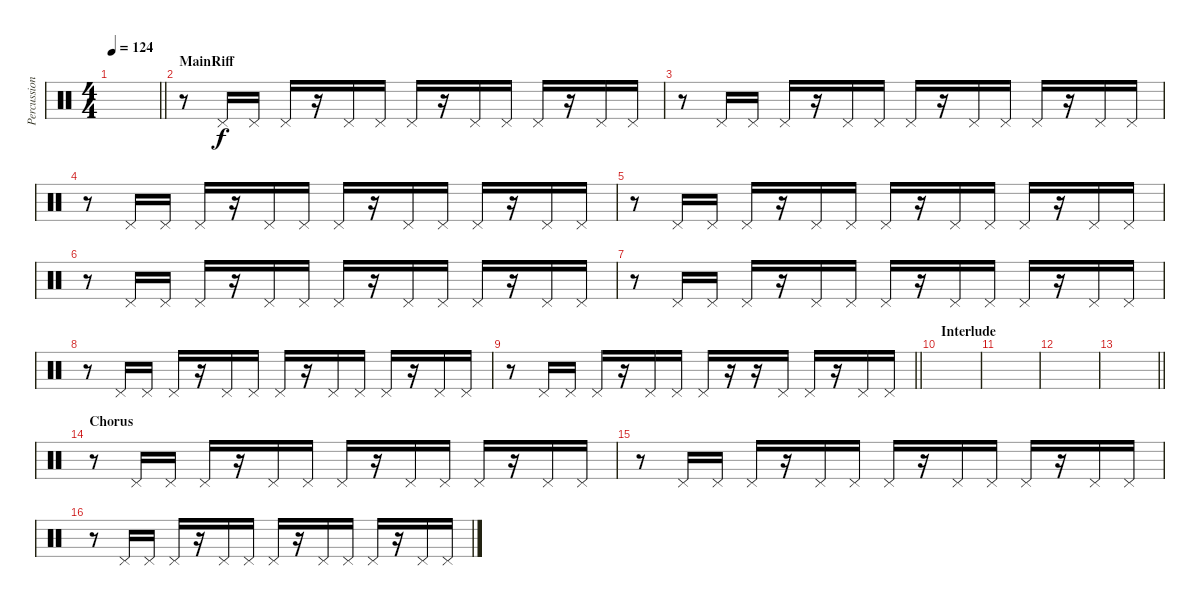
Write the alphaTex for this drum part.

\track ("Percussion" "Percussion") {instrument percussion}
\staff {score}
\articulation defaults
\ts (4 4)
\tempo 124
\clef neutral
\barLineRight lightlight
\ks c
|
\section ("" "MainRiff")
r.8 "Pedal Hi-Hat (hit)".16 "Pedal Hi-Hat (hit)".16 "Pedal Hi-Hat (hit)".16 r.16 "Pedal Hi-Hat (hit)".16 "Pedal Hi-Hat (hit)".16 "Pedal Hi-Hat (hit)".16 r.16 "Pedal Hi-Hat (hit)".16 "Pedal Hi-Hat (hit)".16 "Pedal Hi-Hat (hit)".16 r.16 "Pedal Hi-Hat (hit)".16 "Pedal Hi-Hat (hit)".16 |
r.8 "Pedal Hi-Hat (hit)".16 "Pedal Hi-Hat (hit)".16 "Pedal Hi-Hat (hit)".16 r.16 "Pedal Hi-Hat (hit)".16 "Pedal Hi-Hat (hit)".16 "Pedal Hi-Hat (hit)".16 r.16 "Pedal Hi-Hat (hit)".16 "Pedal Hi-Hat (hit)".16 "Pedal Hi-Hat (hit)".16 r.16 "Pedal Hi-Hat (hit)".16 "Pedal Hi-Hat (hit)".16 |
r.8 "Pedal Hi-Hat (hit)".16 "Pedal Hi-Hat (hit)".16 "Pedal Hi-Hat (hit)".16 r.16 "Pedal Hi-Hat (hit)".16 "Pedal Hi-Hat (hit)".16 "Pedal Hi-Hat (hit)".16 r.16 "Pedal Hi-Hat (hit)".16 "Pedal Hi-Hat (hit)".16 "Pedal Hi-Hat (hit)".16 r.16 "Pedal Hi-Hat (hit)".16 "Pedal Hi-Hat (hit)".16 |
r.8 "Pedal Hi-Hat (hit)".16 "Pedal Hi-Hat (hit)".16 "Pedal Hi-Hat (hit)".16 r.16 "Pedal Hi-Hat (hit)".16 "Pedal Hi-Hat (hit)".16 "Pedal Hi-Hat (hit)".16 r.16 "Pedal Hi-Hat (hit)".16 "Pedal Hi-Hat (hit)".16 "Pedal Hi-Hat (hit)".16 r.16 "Pedal Hi-Hat (hit)".16 "Pedal Hi-Hat (hit)".16 |
r.8 "Pedal Hi-Hat (hit)".16 "Pedal Hi-Hat (hit)".16 "Pedal Hi-Hat (hit)".16 r.16 "Pedal Hi-Hat (hit)".16 "Pedal Hi-Hat (hit)".16 "Pedal Hi-Hat (hit)".16 r.16 "Pedal Hi-Hat (hit)".16 "Pedal Hi-Hat (hit)".16 "Pedal Hi-Hat (hit)".16 r.16 "Pedal Hi-Hat (hit)".16 "Pedal Hi-Hat (hit)".16 |
r.8 "Pedal Hi-Hat (hit)".16 "Pedal Hi-Hat (hit)".16 "Pedal Hi-Hat (hit)".16 r.16 "Pedal Hi-Hat (hit)".16 "Pedal Hi-Hat (hit)".16 "Pedal Hi-Hat (hit)".16 r.16 "Pedal Hi-Hat (hit)".16 "Pedal Hi-Hat (hit)".16 "Pedal Hi-Hat (hit)".16 r.16 "Pedal Hi-Hat (hit)".16 "Pedal Hi-Hat (hit)".16 |
r.8 "Pedal Hi-Hat (hit)".16 "Pedal Hi-Hat (hit)".16 "Pedal Hi-Hat (hit)".16 r.16 "Pedal Hi-Hat (hit)".16 "Pedal Hi-Hat (hit)".16 "Pedal Hi-Hat (hit)".16 r.16 "Pedal Hi-Hat (hit)".16 "Pedal Hi-Hat (hit)".16 "Pedal Hi-Hat (hit)".16 r.16 "Pedal Hi-Hat (hit)".16 "Pedal Hi-Hat (hit)".16 |
\barLineRight lightlight
r.8 "Pedal Hi-Hat (hit)".16 "Pedal Hi-Hat (hit)".16 "Pedal Hi-Hat (hit)".16 r.16 "Pedal Hi-Hat (hit)".16 "Pedal Hi-Hat (hit)".16 "Pedal Hi-Hat (hit)".16 r.16 r.16 "Pedal Hi-Hat (hit)".16 "Pedal Hi-Hat (hit)".16 r.16 "Pedal Hi-Hat (hit)".16 "Pedal Hi-Hat (hit)".16 |
\section ("" "Interlude")
|
|
|
\barLineRight lightlight
|
\section ("" "Chorus")
r.8 "Pedal Hi-Hat (hit)".16 "Pedal Hi-Hat (hit)".16 "Pedal Hi-Hat (hit)".16 r.16 "Pedal Hi-Hat (hit)".16 "Pedal Hi-Hat (hit)".16 "Pedal Hi-Hat (hit)".16 r.16 "Pedal Hi-Hat (hit)".16 "Pedal Hi-Hat (hit)".16 "Pedal Hi-Hat (hit)".16 r.16 "Pedal Hi-Hat (hit)".16 "Pedal Hi-Hat (hit)".16 |
r.8 "Pedal Hi-Hat (hit)".16 "Pedal Hi-Hat (hit)".16 "Pedal Hi-Hat (hit)".16 r.16 "Pedal Hi-Hat (hit)".16 "Pedal Hi-Hat (hit)".16 "Pedal Hi-Hat (hit)".16 r.16 "Pedal Hi-Hat (hit)".16 "Pedal Hi-Hat (hit)".16 "Pedal Hi-Hat (hit)".16 r.16 "Pedal Hi-Hat (hit)".16 "Pedal Hi-Hat (hit)".16 |
r.8 "Pedal Hi-Hat (hit)".16 "Pedal Hi-Hat (hit)".16 "Pedal Hi-Hat (hit)".16 r.16 "Pedal Hi-Hat (hit)".16 "Pedal Hi-Hat (hit)".16 "Pedal Hi-Hat (hit)".16 r.16 "Pedal Hi-Hat (hit)".16 "Pedal Hi-Hat (hit)".16 "Pedal Hi-Hat (hit)".16 r.16 "Pedal Hi-Hat (hit)".16 "Pedal Hi-Hat (hit)".16
